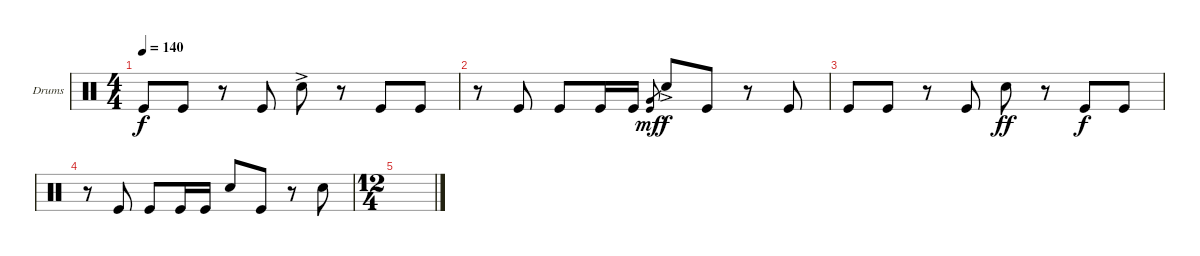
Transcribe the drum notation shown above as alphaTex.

\defaultSystemsLayout 4
\bracketExtendMode groupsimilarinstruments
\firstSystemTrackNameOrientation horizontal
\otherSystemsTrackNameOrientation horizontal
\track ("Drumkit" "Drums") {instrument percussion}
\staff {score}
\articulation defaults
\ts (4 4)
\tempo 140
\clef neutral
\ks c "Kick (hit)".8{dy f} "Kick (hit)".8
r.8 "Kick (hit)".8 "Snare (hit) 2"{ac}.8 r.8 "Kick (hit)".8 "Kick (hit)".8 |
r.8 "Kick (hit)".8 "Kick (hit)".8 "Kick (hit)".16 "Kick (hit)".16 ("Very Low Tom (hit)" "Kick (hit)").8{gr dy mf} "Snare (hit) 2"{ac}.8{dy f} "Kick (hit)".8 r.8 "Kick (hit)".8 |
"Kick (hit)".8 "Kick (hit)".8 r.8 "Kick (hit)".8 "Snare (hit) 2".8{dy ff} r.8 "Kick (hit)".8{dy f} "Kick (hit)".8 |
r.8 "Kick (hit)".8 "Kick (hit)".8 "Kick (hit)".16 "Kick (hit)".16 "Snare (hit) 2".8 "Kick (hit)".8 r.8 "Snare (hit) 2".8 |
\ts (12 4)
